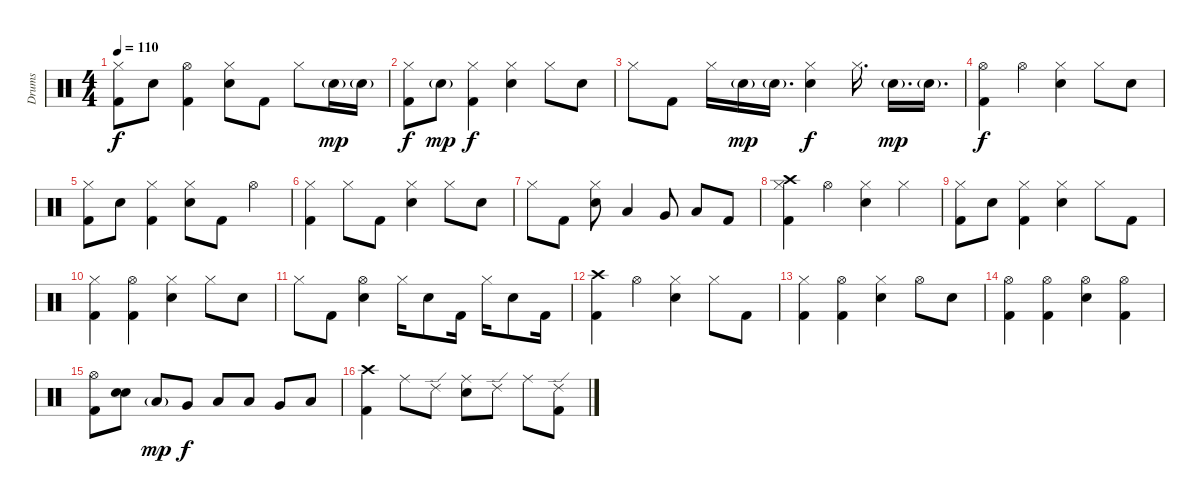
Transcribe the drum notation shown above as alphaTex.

\track ("Drums" "Drums") {instrument percussion}
\staff {score}
\articulation defaults
\ts (4 4)
\tempo 110
\clef neutral
\ks c
("Hi-Hat (closed)" "Kick (hit) 2").8{dy f} "Electric Snare (hit)".8 ("Hi-Hat (open)" "Kick (hit) 2").4 ("Hi-Hat (closed)" "Electric Snare (hit)").8 "Kick (hit) 2".8 "Hi-Hat (closed)".8 "Electric Snare (hit)"{g}.16{dy mp} "Electric Snare (hit)"{g}.16 |
("Hi-Hat (closed)" "Kick (hit) 2").8{dy f} "Electric Snare (hit)"{g}.8{dy mp} ("Hi-Hat (closed)" "Kick (hit) 2").4{dy f} ("Hi-Hat (closed)" "Electric Snare (hit)").4 "Hi-Hat (closed)".8 "Electric Snare (hit)".8 |
"Hi-Hat (closed)".8 "Kick (hit) 2".8 "Hi-Hat (closed)".16 "Electric Snare (hit)"{g}.16{dy mp} "Electric Snare (hit)"{g}.16{d} ("Hi-Hat (closed)" "Electric Snare (hit)").4{dy f} "Hi-Hat (closed)".16{d} "Electric Snare (hit)"{g}.16{d dy mp} "Electric Snare (hit)"{g}.16{d} |
("Hi-Hat (open)" "Kick (hit) 2").4{dy f} "Hi-Hat (open)".4 ("Hi-Hat (closed)" "Electric Snare (hit)").4 "Hi-Hat (closed)".8 "Electric Snare (hit)".8 |
("Hi-Hat (closed)" "Kick (hit) 2").8 "Electric Snare (hit)".8 ("Hi-Hat (closed)" "Kick (hit) 2").4 ("Hi-Hat (closed)" "Electric Snare (hit)").8 "Kick (hit) 2".8 "Hi-Hat (open)".4 |
("Hi-Hat (closed)" "Kick (hit) 2").4 "Hi-Hat (closed)".8 "Kick (hit) 2".8 ("Hi-Hat (closed)" "Electric Snare (hit)").4 "Hi-Hat (closed)".8 "Electric Snare (hit)".8 |
"Hi-Hat (closed)".8 "Kick (hit) 2".8 ("Hi-Hat (closed)" "Electric Snare (hit)").8 "Low Floor Tom (hit)".4 "Very Low Tom (hit)".8 "Low Floor Tom (hit)".8 "Kick (hit) 2".8 |
("Crash high (hit)" "Hi-Hat (closed)" "Kick (hit) 2").4 "Hi-Hat (open)".4 ("Hi-Hat (closed)" "Electric Snare (hit)").4 "Hi-Hat (closed)".4 |
("Hi-Hat (closed)" "Kick (hit) 2").8 "Electric Snare (hit)".8 ("Hi-Hat (closed)" "Kick (hit) 2").4 ("Hi-Hat (closed)" "Electric Snare (hit)").4 "Hi-Hat (closed)".8 "Kick (hit) 2".8 |
("Hi-Hat (closed)" "Kick (hit) 2").4 ("Hi-Hat (open)" "Kick (hit) 2").4 ("Hi-Hat (closed)" "Electric Snare (hit)").4 "Hi-Hat (closed)".8 "Electric Snare (hit)".8 |
"Hi-Hat (closed)".8 "Kick (hit) 2".8 ("Hi-Hat (open)" "Electric Snare (hit)").4 "Hi-Hat (closed)".16 "Electric Snare (hit)".8 "Kick (hit) 2".16 "Hi-Hat (closed)".16 "Electric Snare (hit)".8 "Kick (hit) 2".16 |
("Crash high (hit)" "Kick (hit) 2").4 "Hi-Hat (open)".4 ("Hi-Hat (closed)" "Electric Snare (hit)").4 "Hi-Hat (closed)".8 "Kick (hit) 2".8 |
("Hi-Hat (closed)" "Kick (hit) 2").4 ("Hi-Hat (open)" "Kick (hit) 2").4 ("Hi-Hat (closed)" "Electric Snare (hit)").4 "Hi-Hat (open)".8 "Electric Snare (hit)".8 |
("Hi-Hat (open)" "Kick (hit) 2").4 ("Hi-Hat (open)" "Kick (hit) 2").4 ("Hi-Hat (open)" "Electric Snare (hit)").4 ("Hi-Hat (open)" "Kick (hit) 2").4 |
("Hi-Hat (open)" "Kick (hit) 2").8 ("Electric Snare (hit)" "Snare (hit) 2").8 "Low Floor Tom (hit)"{g}.8{dy mp} "Very Low Tom (hit)".8{dy f} "Low Floor Tom (hit)".8 "Low Tom (hit)".8 "Very Low Tom (hit)".8 "Low Floor Tom (hit)".8 |
("Crash high (hit)" "Kick (hit) 2").4 "Ride (middle)".8 "Ride (edge) 2".8 ("Ride (middle)" "Electric Snare (hit)").8 "Ride (edge) 2".8 "Ride (middle)".8 ("Ride (edge) 2" "Kick (hit) 2").8
